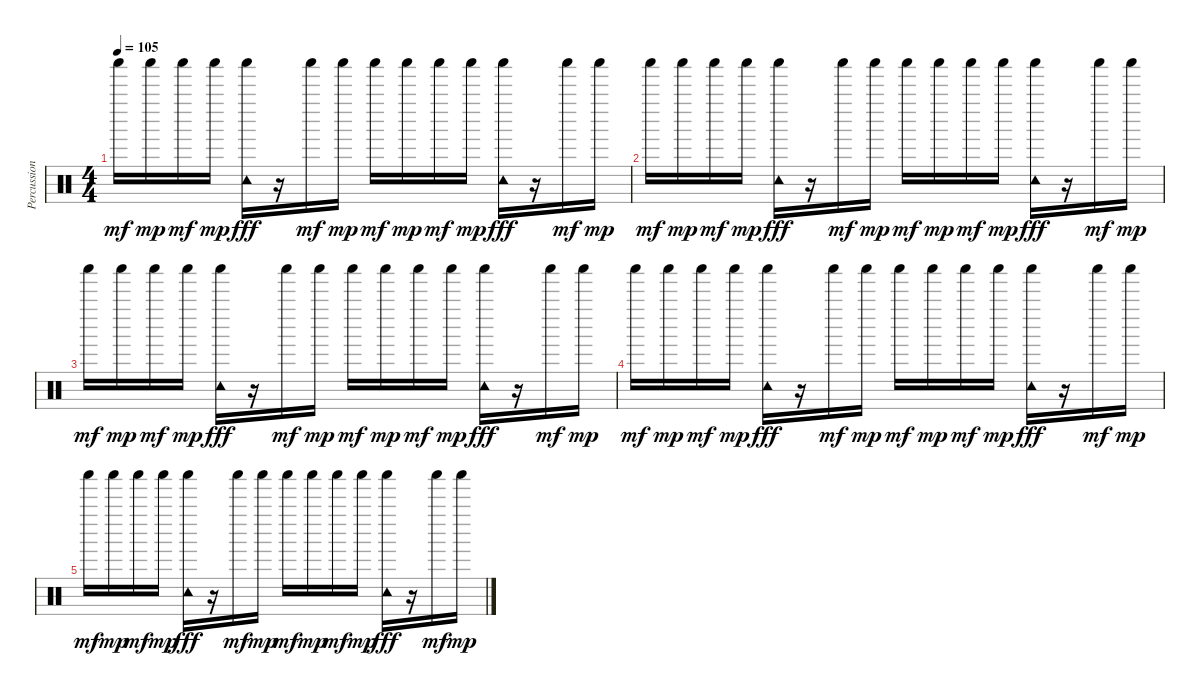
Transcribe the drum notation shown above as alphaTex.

\track ("Percussion" "Percussion") {instrument percussion}
\staff {score}
\articulation defaults
\ts (4 4)
\tempo 105
\clef neutral
\ks c "Shaker (hit)".16{dy mf} "Shaker (hit)".16{dy mp} "Shaker (hit)".16{dy mf} "Shaker (hit)".16{dy mp}
("Shaker (hit)" "Tambourine (hit)").16{dy fff} r.16 "Shaker (hit)".16{dy mf} "Shaker (hit)".16{dy mp} "Shaker (hit)".16{dy mf} "Shaker (hit)".16{dy mp} "Shaker (hit)".16{dy mf} "Shaker (hit)".16{dy mp} ("Shaker (hit)" "Tambourine (hit)").16{dy fff} r.16 "Shaker (hit)".16{dy mf} "Shaker (hit)".16{dy mp} |
"Shaker (hit)".16{dy mf} "Shaker (hit)".16{dy mp} "Shaker (hit)".16{dy mf} "Shaker (hit)".16{dy mp} ("Shaker (hit)" "Tambourine (hit)").16{dy fff} r.16 "Shaker (hit)".16{dy mf} "Shaker (hit)".16{dy mp} "Shaker (hit)".16{dy mf} "Shaker (hit)".16{dy mp} "Shaker (hit)".16{dy mf} "Shaker (hit)".16{dy mp} ("Shaker (hit)" "Tambourine (hit)").16{dy fff} r.16 "Shaker (hit)".16{dy mf} "Shaker (hit)".16{dy mp} |
"Shaker (hit)".16{dy mf} "Shaker (hit)".16{dy mp} "Shaker (hit)".16{dy mf} "Shaker (hit)".16{dy mp} ("Shaker (hit)" "Tambourine (hit)").16{dy fff} r.16 "Shaker (hit)".16{dy mf} "Shaker (hit)".16{dy mp} "Shaker (hit)".16{dy mf} "Shaker (hit)".16{dy mp} "Shaker (hit)".16{dy mf} "Shaker (hit)".16{dy mp} ("Shaker (hit)" "Tambourine (hit)").16{dy fff} r.16 "Shaker (hit)".16{dy mf} "Shaker (hit)".16{dy mp} |
"Shaker (hit)".16{dy mf} "Shaker (hit)".16{dy mp} "Shaker (hit)".16{dy mf} "Shaker (hit)".16{dy mp} ("Shaker (hit)" "Tambourine (hit)").16{dy fff} r.16 "Shaker (hit)".16{dy mf} "Shaker (hit)".16{dy mp} "Shaker (hit)".16{dy mf} "Shaker (hit)".16{dy mp} "Shaker (hit)".16{dy mf} "Shaker (hit)".16{dy mp} ("Shaker (hit)" "Tambourine (hit)").16{dy fff} r.16 "Shaker (hit)".16{dy mf} "Shaker (hit)".16{dy mp} |
"Shaker (hit)".16{dy mf} "Shaker (hit)".16{dy mp} "Shaker (hit)".16{dy mf} "Shaker (hit)".16{dy mp} ("Shaker (hit)" "Tambourine (hit)").16{dy fff} r.16 "Shaker (hit)".16{dy mf} "Shaker (hit)".16{dy mp} "Shaker (hit)".16{dy mf} "Shaker (hit)".16{dy mp} "Shaker (hit)".16{dy mf} "Shaker (hit)".16{dy mp} ("Shaker (hit)" "Tambourine (hit)").16{dy fff} r.16 "Shaker (hit)".16{dy mf} "Shaker (hit)".16{dy mp}
